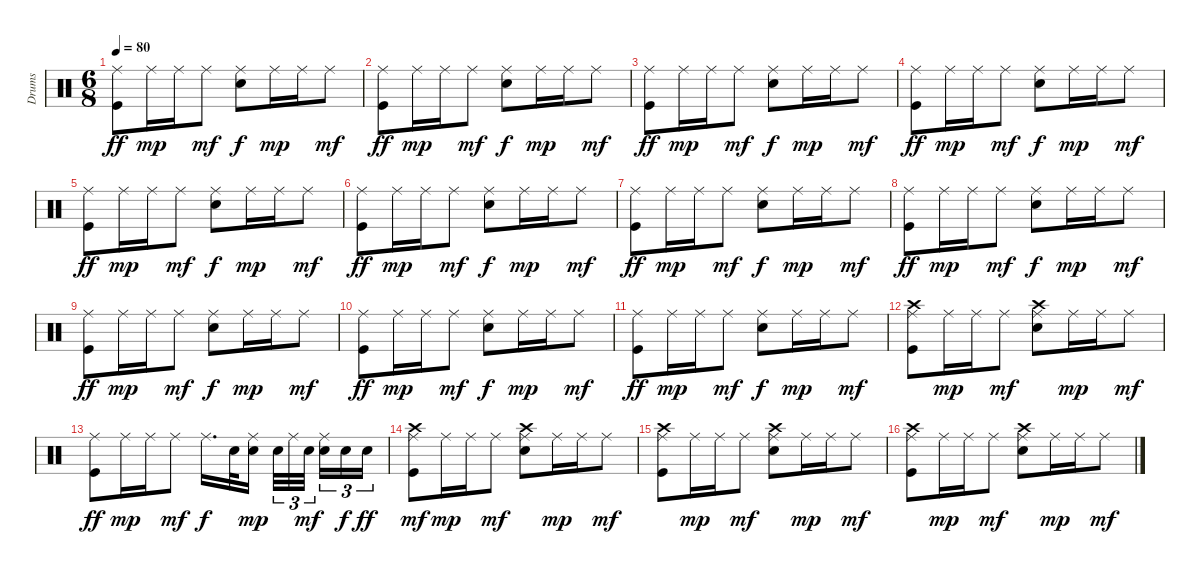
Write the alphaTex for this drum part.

\track ("Drums" "Drums") {instrument percussion}
\staff {score}
\articulation defaults
\ts (6 8)
\tempo 80
\clef neutral
\ks c
("Kick (hit)" "Ride (middle)").8{dy ff} "Ride (middle)".16{dy mp} "Ride (middle)".16 "Ride (middle)".8{dy mf} ("Ride (middle)" "Snare (hit) 2").8{dy f} "Ride (middle)".16{dy mp} "Ride (middle)".16 "Ride (middle)".8{dy mf} |
("Kick (hit)" "Ride (middle)").8{dy ff} "Ride (middle)".16{dy mp} "Ride (middle)".16 "Ride (middle)".8{dy mf} ("Ride (middle)" "Snare (hit) 2").8{dy f} "Ride (middle)".16{dy mp} "Ride (middle)".16 "Ride (middle)".8{dy mf} |
("Kick (hit)" "Ride (middle)").8{dy ff} "Ride (middle)".16{dy mp} "Ride (middle)".16 "Ride (middle)".8{dy mf} ("Ride (middle)" "Snare (hit) 2").8{dy f} "Ride (middle)".16{dy mp} "Ride (middle)".16 "Ride (middle)".8{dy mf} |
("Kick (hit)" "Ride (middle)").8{dy ff} "Ride (middle)".16{dy mp} "Ride (middle)".16 "Ride (middle)".8{dy mf} ("Ride (middle)" "Snare (hit) 2").8{dy f} "Ride (middle)".16{dy mp} "Ride (middle)".16 "Ride (middle)".8{dy mf} |
("Kick (hit)" "Ride (middle)").8{dy ff} "Ride (middle)".16{dy mp} "Ride (middle)".16 "Ride (middle)".8{dy mf} ("Ride (middle)" "Snare (hit) 2").8{dy f} "Ride (middle)".16{dy mp} "Ride (middle)".16 "Ride (middle)".8{dy mf} |
("Kick (hit)" "Ride (middle)").8{dy ff} "Ride (middle)".16{dy mp} "Ride (middle)".16 "Ride (middle)".8{dy mf} ("Ride (middle)" "Snare (hit) 2").8{dy f} "Ride (middle)".16{dy mp} "Ride (middle)".16 "Ride (middle)".8{dy mf} |
("Kick (hit)" "Ride (middle)").8{dy ff} "Ride (middle)".16{dy mp} "Ride (middle)".16 "Ride (middle)".8{dy mf} ("Ride (middle)" "Snare (hit) 2").8{dy f} "Ride (middle)".16{dy mp} "Ride (middle)".16 "Ride (middle)".8{dy mf} |
("Kick (hit)" "Ride (middle)").8{dy ff} "Ride (middle)".16{dy mp} "Ride (middle)".16 "Ride (middle)".8{dy mf} ("Ride (middle)" "Snare (hit) 2").8{dy f} "Ride (middle)".16{dy mp} "Ride (middle)".16 "Ride (middle)".8{dy mf} |
("Kick (hit)" "Ride (middle)").8{dy ff} "Ride (middle)".16{dy mp} "Ride (middle)".16 "Ride (middle)".8{dy mf} ("Ride (middle)" "Snare (hit) 2").8{dy f} "Ride (middle)".16{dy mp} "Ride (middle)".16 "Ride (middle)".8{dy mf} |
("Kick (hit)" "Ride (middle)").8{dy ff} "Ride (middle)".16{dy mp} "Ride (middle)".16 "Ride (middle)".8{dy mf} ("Ride (middle)" "Snare (hit) 2").8{dy f} "Ride (middle)".16{dy mp} "Ride (middle)".16 "Ride (middle)".8{dy mf} |
("Kick (hit)" "Ride (middle)").8{dy ff} "Ride (middle)".16{dy mp} "Ride (middle)".16 "Ride (middle)".8{dy mf} ("Ride (middle)" "Snare (hit) 2").8{dy f} "Ride (middle)".16{dy mp} "Ride (middle)".16 "Ride (middle)".8{dy mf} |
("Kick (hit)" "Ride (middle)" "Crash high (hit)").8 "Ride (middle)".16{dy mp} "Ride (middle)".16 "Ride (middle)".8{dy mf} ("Ride (middle)" "Snare (hit) 2" "Crash high (hit)").8 "Ride (middle)".16{dy mp} "Ride (middle)".16 "Ride (middle)".8{dy mf} |
("Kick (hit)" "Ride (middle)").8{dy ff} "Ride (middle)".16{dy mp} "Ride (middle)".16 "Ride (middle)".8{dy mf} "Ride (middle)".16{d dy f} "Snare (hit) 2".32 ("Ride (middle)" "Snare (hit) 2").16{dy mp} "Snare (hit) 2".32{tu (3 2)} "Ride (middle)".32{tu (3 2)} "Snare (hit) 2".32{tu (3 2) dy mf} ("Ride (middle)" "Snare (hit) 2").16{tu (3 2)} "Snare (hit) 2".16{tu (3 2) dy f} "Snare (hit) 2".16{tu (3 2) dy ff} |
("Kick (hit)" "Ride (middle)" "Crash high (hit)").8{dy mf} "Ride (middle)".16{dy mp} "Ride (middle)".16 "Ride (middle)".8{dy mf} ("Ride (middle)" "Snare (hit) 2" "Crash high (hit)").8 "Ride (middle)".16{dy mp} "Ride (middle)".16 "Ride (middle)".8{dy mf} |
("Kick (hit)" "Ride (middle)" "Crash high (hit)").8 "Ride (middle)".16{dy mp} "Ride (middle)".16 "Ride (middle)".8{dy mf} ("Ride (middle)" "Snare (hit) 2" "Crash high (hit)").8 "Ride (middle)".16{dy mp} "Ride (middle)".16 "Ride (middle)".8{dy mf} |
("Kick (hit)" "Ride (middle)" "Crash high (hit)").8 "Ride (middle)".16{dy mp} "Ride (middle)".16 "Ride (middle)".8{dy mf} ("Ride (middle)" "Snare (hit) 2" "Crash high (hit)").8 "Ride (middle)".16{dy mp} "Ride (middle)".16 "Ride (middle)".8{dy mf}
